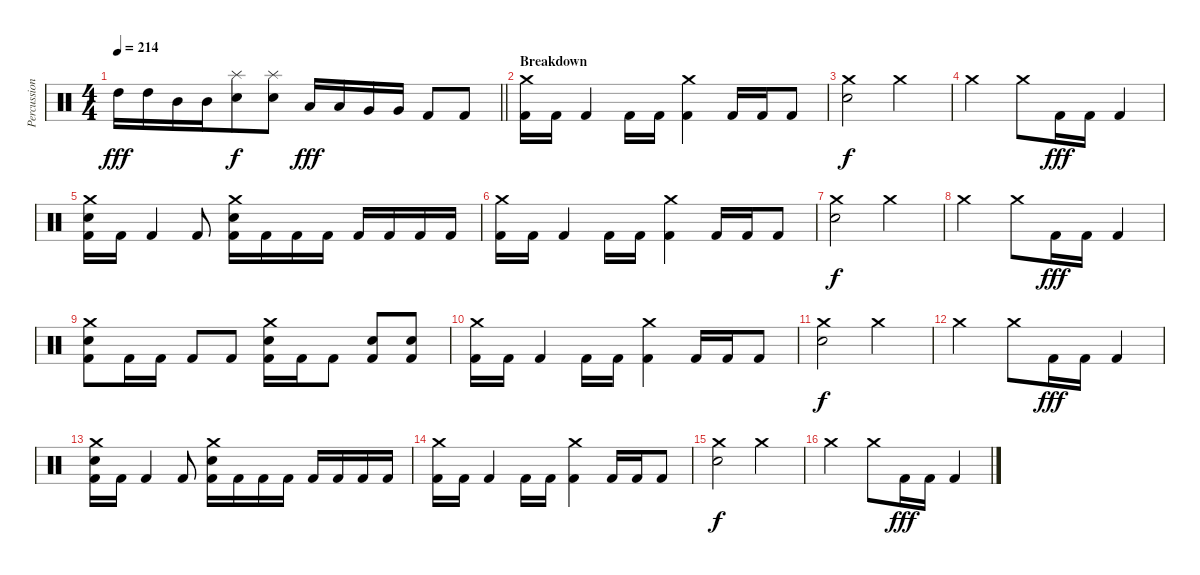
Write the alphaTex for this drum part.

\track ("Percussion" "Percussion") {instrument percussion}
\staff {score}
\articulation defaults
\ts (4 4)
\tempo 214
\clef neutral
\barLineRight lightlight
\ks c "High Tom (hit)".16{dy fff} "High Tom (hit)".16 "Mid Tom (hit)".16 "Mid Tom (hit)".16{beam merge}
("Splash (hit)" "Electric Snare (hit)").8{dy f beam merge} ("Splash (hit)" "Electric Snare (hit)").8 "Low Tom (hit)".16{dy fff} "Low Tom (hit)".16 "Very Low Tom (hit)".16 "Very Low Tom (hit)".16 "Kick (hit) 2".8 "Kick (hit) 2".8 |
\section ("" "Breakdown")
("Crash medium (hit)" "Kick (hit) 2").16 "Kick (hit) 2".16 "Kick (hit) 2".4 "Kick (hit) 2".16 "Kick (hit) 2".16{beam merge} ("Crash medium (hit)" "Kick (hit) 2").4 "Kick (hit) 2".16 "Kick (hit) 2".16 "Kick (hit) 2".8 |
("Crash medium (hit)" "Electric Snare (hit)").2{dy f} "Crash medium (hit)".2 |
"Crash medium (hit)".2 "Crash medium (hit)".8 "Kick (hit) 2".16{dy fff} "Kick (hit) 2".16 "Kick (hit) 2".4 |
("Crash medium (hit)" "Electric Snare (hit)" "Kick (hit) 2").16 "Kick (hit) 2".16 "Kick (hit) 2".4 "Kick (hit) 2".8 ("Crash medium (hit)" "Electric Snare (hit)" "Kick (hit) 2").16 "Kick (hit) 2".16 "Kick (hit) 2".16 "Kick (hit) 2".16 "Kick (hit) 2".16 "Kick (hit) 2".16 "Kick (hit) 2".16 "Kick (hit) 2".16 |
("Crash medium (hit)" "Kick (hit) 2").16 "Kick (hit) 2".16 "Kick (hit) 2".4 "Kick (hit) 2".16 "Kick (hit) 2".16{beam merge} ("Crash medium (hit)" "Kick (hit) 2").4 "Kick (hit) 2".16 "Kick (hit) 2".16 "Kick (hit) 2".8 |
("Crash medium (hit)" "Electric Snare (hit)").2{dy f} "Crash medium (hit)".2 |
"Crash medium (hit)".2 "Crash medium (hit)".8 "Kick (hit) 2".16{dy fff} "Kick (hit) 2".16 "Kick (hit) 2".4 |
("Crash medium (hit)" "Electric Snare (hit)" "Kick (hit) 2").8 "Kick (hit) 2".16 "Kick (hit) 2".16 "Kick (hit) 2".8 "Kick (hit) 2".8 ("Crash medium (hit)" "Electric Snare (hit)" "Kick (hit) 2").16 "Kick (hit) 2".16 "Kick (hit) 2".8 ("Electric Snare (hit)" "Kick (hit) 2").8 ("Electric Snare (hit)" "Kick (hit) 2").8 |
("Crash medium (hit)" "Kick (hit) 2").16 "Kick (hit) 2".16 "Kick (hit) 2".4 "Kick (hit) 2".16 "Kick (hit) 2".16{beam merge} ("Crash medium (hit)" "Kick (hit) 2").4 "Kick (hit) 2".16 "Kick (hit) 2".16 "Kick (hit) 2".8 |
("Crash medium (hit)" "Electric Snare (hit)").2{dy f} "Crash medium (hit)".2 |
"Crash medium (hit)".2 "Crash medium (hit)".8 "Kick (hit) 2".16{dy fff} "Kick (hit) 2".16 "Kick (hit) 2".4 |
("Crash medium (hit)" "Electric Snare (hit)" "Kick (hit) 2").16 "Kick (hit) 2".16 "Kick (hit) 2".4 "Kick (hit) 2".8 ("Crash medium (hit)" "Electric Snare (hit)" "Kick (hit) 2").16 "Kick (hit) 2".16 "Kick (hit) 2".16 "Kick (hit) 2".16 "Kick (hit) 2".16 "Kick (hit) 2".16 "Kick (hit) 2".16 "Kick (hit) 2".16 |
("Crash medium (hit)" "Kick (hit) 2").16 "Kick (hit) 2".16 "Kick (hit) 2".4 "Kick (hit) 2".16 "Kick (hit) 2".16{beam merge} ("Crash medium (hit)" "Kick (hit) 2").4 "Kick (hit) 2".16 "Kick (hit) 2".16 "Kick (hit) 2".8 |
("Crash medium (hit)" "Electric Snare (hit)").2{dy f} "Crash medium (hit)".2 |
"Crash medium (hit)".2 "Crash medium (hit)".8 "Kick (hit) 2".16{dy fff} "Kick (hit) 2".16 "Kick (hit) 2".4
